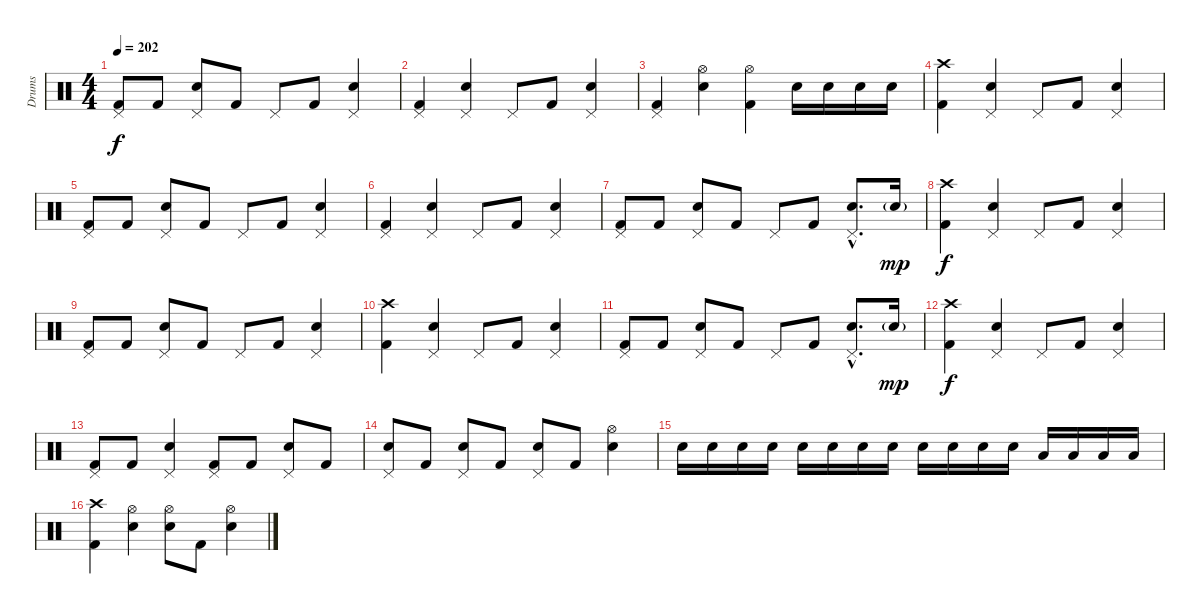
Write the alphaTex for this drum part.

\track ("Drums" "Drums") {instrument percussion}
\staff {score}
\articulation defaults
\ts (4 4)
\tempo 202
\clef neutral
\ks c
("Pedal Hi-Hat (hit)" "Kick (hit) 2").8{dy f} "Kick (hit) 2".8 ("Pedal Hi-Hat (hit)" "Electric Snare (hit)").8 "Kick (hit) 2".8 "Pedal Hi-Hat (hit)".8 "Kick (hit) 2".8 ("Pedal Hi-Hat (hit)" "Electric Snare (hit)").4 |
("Pedal Hi-Hat (hit)" "Kick (hit) 2").4 ("Pedal Hi-Hat (hit)" "Electric Snare (hit)").4 "Pedal Hi-Hat (hit)".8 "Kick (hit) 2".8 ("Pedal Hi-Hat (hit)" "Electric Snare (hit)").4 |
("Pedal Hi-Hat (hit)" "Kick (hit) 2").4 ("Hi-Hat (open)" "Electric Snare (hit)").4 ("Hi-Hat (open)" "Kick (hit) 2").4 "Electric Snare (hit)".16 "Electric Snare (hit)".16 "Electric Snare (hit)".16 "Electric Snare (hit)".16 |
("Crash high (hit)" "Kick (hit) 2").4 ("Pedal Hi-Hat (hit)" "Electric Snare (hit)").4 "Pedal Hi-Hat (hit)".8 "Kick (hit) 2".8 ("Pedal Hi-Hat (hit)" "Electric Snare (hit)").4 |
("Pedal Hi-Hat (hit)" "Kick (hit) 2").8 "Kick (hit) 2".8 ("Pedal Hi-Hat (hit)" "Electric Snare (hit)").8 "Kick (hit) 2".8 "Pedal Hi-Hat (hit)".8 "Kick (hit) 2".8 ("Pedal Hi-Hat (hit)" "Electric Snare (hit)").4 |
("Pedal Hi-Hat (hit)" "Kick (hit) 2").4 ("Pedal Hi-Hat (hit)" "Electric Snare (hit)").4 "Pedal Hi-Hat (hit)".8 "Kick (hit) 2".8 ("Pedal Hi-Hat (hit)" "Electric Snare (hit)").4 |
("Pedal Hi-Hat (hit)" "Kick (hit) 2").8 "Kick (hit) 2".8 ("Pedal Hi-Hat (hit)" "Electric Snare (hit)").8 "Kick (hit) 2".8 "Pedal Hi-Hat (hit)".8 "Kick (hit) 2".8 ("Pedal Hi-Hat (hit)"{hac} "Electric Snare (hit)"{hac}).8{d} "Electric Snare (hit)"{g}.16{dy mp} |
("Crash high (hit)" "Kick (hit) 2").4{dy f} ("Pedal Hi-Hat (hit)" "Electric Snare (hit)").4 "Pedal Hi-Hat (hit)".8 "Kick (hit) 2".8 ("Pedal Hi-Hat (hit)" "Electric Snare (hit)").4 |
("Pedal Hi-Hat (hit)" "Kick (hit) 2").8 "Kick (hit) 2".8 ("Pedal Hi-Hat (hit)" "Electric Snare (hit)").8 "Kick (hit) 2".8 "Pedal Hi-Hat (hit)".8 "Kick (hit) 2".8 ("Pedal Hi-Hat (hit)" "Electric Snare (hit)").4 |
("Crash high (hit)" "Kick (hit) 2").4 ("Pedal Hi-Hat (hit)" "Electric Snare (hit)").4 "Pedal Hi-Hat (hit)".8 "Kick (hit) 2".8 ("Pedal Hi-Hat (hit)" "Electric Snare (hit)").4 |
("Pedal Hi-Hat (hit)" "Kick (hit) 2").8 "Kick (hit) 2".8 ("Pedal Hi-Hat (hit)" "Electric Snare (hit)").8 "Kick (hit) 2".8 "Pedal Hi-Hat (hit)".8 "Kick (hit) 2".8 ("Pedal Hi-Hat (hit)"{hac} "Electric Snare (hit)"{hac}).8{d} "Electric Snare (hit)"{g}.16{dy mp} |
("Crash high (hit)" "Kick (hit) 2").4{dy f} ("Pedal Hi-Hat (hit)" "Electric Snare (hit)").4 "Pedal Hi-Hat (hit)".8 "Kick (hit) 2".8 ("Pedal Hi-Hat (hit)" "Electric Snare (hit)").4 |
("Pedal Hi-Hat (hit)" "Kick (hit) 2").8 "Kick (hit) 2".8 ("Pedal Hi-Hat (hit)" "Electric Snare (hit)").4 ("Pedal Hi-Hat (hit)" "Kick (hit) 2").8 "Kick (hit) 2".8 ("Pedal Hi-Hat (hit)" "Electric Snare (hit)").8 "Kick (hit) 2".8 |
("Pedal Hi-Hat (hit)" "Electric Snare (hit)").8 "Kick (hit) 2".8 ("Pedal Hi-Hat (hit)" "Electric Snare (hit)").8 "Kick (hit) 2".8 ("Pedal Hi-Hat (hit)" "Electric Snare (hit)").8 "Kick (hit) 2".8 ("Hi-Hat (open)" "Electric Snare (hit)").4 |
"Electric Snare (hit)".16 "Electric Snare (hit)".16 "Electric Snare (hit)".16 "Electric Snare (hit)".16 "Electric Snare (hit)".16 "Electric Snare (hit)".16 "Electric Snare (hit)".16 "Electric Snare (hit)".16 "Electric Snare (hit)".16 "Electric Snare (hit)".16 "Electric Snare (hit)".16 "Electric Snare (hit)".16 "Low Tom (hit)".16 "Low Tom (hit)".16 "Low Tom (hit)".16 "Low Tom (hit)".16 |
("Crash high (hit)" "Kick (hit) 2").4 ("Hi-Hat (open)" "Electric Snare (hit)").4 ("Hi-Hat (open)" "Electric Snare (hit)").8 "Kick (hit) 2".8 ("Hi-Hat (open)" "Electric Snare (hit)").4
